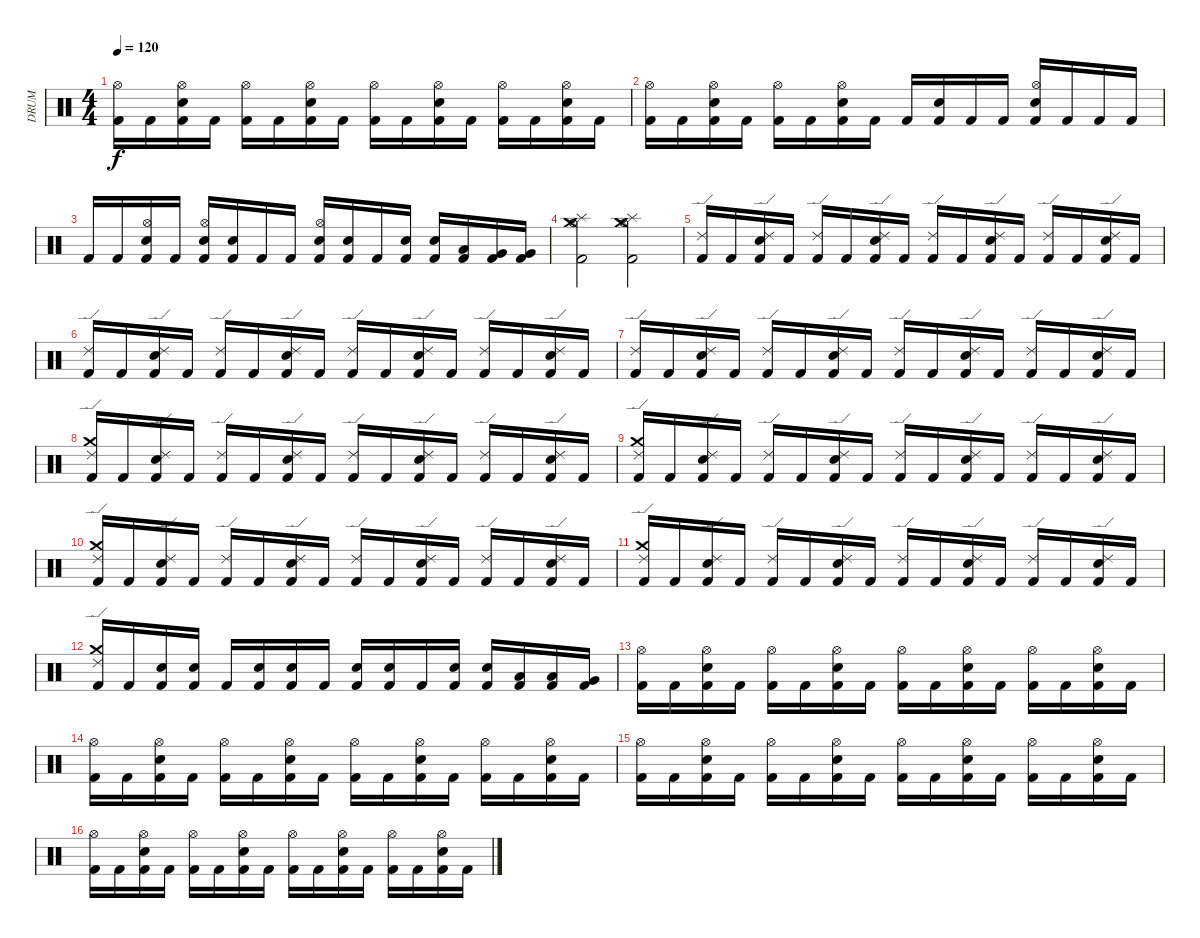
\track (" DRUM" " DRUM") {instrument percussion}
\staff {score}
\articulation defaults
\ts (4 4)
\tempo 120
\clef neutral
\ks c
("Kick (hit) 2" "Hi-Hat (open)").16{dy f} "Kick (hit) 2".16 ("Kick (hit) 2" "Electric Snare (hit)" "Hi-Hat (open)").16 "Kick (hit) 2".16 ("Kick (hit) 2" "Hi-Hat (open)").16 "Kick (hit) 2".16 ("Kick (hit) 2" "Electric Snare (hit)" "Hi-Hat (open)").16 "Kick (hit) 2".16 ("Kick (hit) 2" "Hi-Hat (open)").16 "Kick (hit) 2".16 ("Kick (hit) 2" "Electric Snare (hit)" "Hi-Hat (open)").16 "Kick (hit) 2".16 ("Kick (hit) 2" "Hi-Hat (open)").16 "Kick (hit) 2".16 ("Kick (hit) 2" "Electric Snare (hit)" "Hi-Hat (open)").16 "Kick (hit) 2".16 |
("Kick (hit) 2" "Hi-Hat (open)").16 "Kick (hit) 2".16 ("Kick (hit) 2" "Electric Snare (hit)" "Hi-Hat (open)").16 "Kick (hit) 2".16 ("Kick (hit) 2" "Hi-Hat (open)").16 "Kick (hit) 2".16 ("Kick (hit) 2" "Electric Snare (hit)" "Hi-Hat (open)").16 "Kick (hit) 2".16 "Kick (hit) 2".16 ("Electric Snare (hit)" "Kick (hit) 2").16 "Kick (hit) 2".16 "Kick (hit) 2".16 ("Hi-Hat (open)" "Electric Snare (hit)" "Kick (hit) 2").16 "Kick (hit) 2".16 "Kick (hit) 2".16 "Kick (hit) 2".16 |
"Kick (hit) 2".16 "Kick (hit) 2".16 ("Hi-Hat (open)" "Kick (hit) 2" "Electric Snare (hit)").16 "Kick (hit) 2".16 ("Hi-Hat (open)" "Kick (hit) 2" "Electric Snare (hit)").16 ("Kick (hit) 2" "Electric Snare (hit)").16 "Kick (hit) 2".16 "Kick (hit) 2".16 ("Hi-Hat (open)" "Kick (hit) 2" "Electric Snare (hit)").16 ("Kick (hit) 2" "Electric Snare (hit)").16 "Kick (hit) 2".16 ("Kick (hit) 2" "Electric Snare (hit)").16 ("Kick (hit) 2" "Electric Snare (hit)").16 ("Kick (hit) 2" "Low Tom (hit)").16 ("Kick (hit) 2" "Very Low Tom (hit)").16 ("Kick (hit) 2" "Very Low Tom (hit)").16 |
("Hi-Hat (open)" "Crash medium (hit)" "Splash (hit)" "Kick (hit) 2").2 ("Hi-Hat (open)" "Crash medium (hit)" "Splash (hit)" "Kick (hit) 2").2 |
("Kick (hit) 2" "Ride (edge) 2").16 "Kick (hit) 2".16 ("Kick (hit) 2" "Electric Snare (hit)" "Ride (edge) 2").16 "Kick (hit) 2".16 ("Kick (hit) 2" "Ride (edge) 2").16 "Kick (hit) 2".16 ("Kick (hit) 2" "Electric Snare (hit)" "Ride (edge) 2").16 "Kick (hit) 2".16 ("Kick (hit) 2" "Ride (edge) 2").16 "Kick (hit) 2".16 ("Kick (hit) 2" "Electric Snare (hit)" "Ride (edge) 2").16 "Kick (hit) 2".16 ("Kick (hit) 2" "Ride (edge) 2").16 "Kick (hit) 2".16 ("Kick (hit) 2" "Electric Snare (hit)" "Ride (edge) 2").16 "Kick (hit) 2".16 |
("Kick (hit) 2" "Ride (edge) 2").16 "Kick (hit) 2".16 ("Kick (hit) 2" "Electric Snare (hit)" "Ride (edge) 2").16 "Kick (hit) 2".16 ("Kick (hit) 2" "Ride (edge) 2").16 "Kick (hit) 2".16 ("Kick (hit) 2" "Electric Snare (hit)" "Ride (edge) 2").16 "Kick (hit) 2".16 ("Kick (hit) 2" "Ride (edge) 2").16 "Kick (hit) 2".16 ("Kick (hit) 2" "Electric Snare (hit)" "Ride (edge) 2").16 "Kick (hit) 2".16 ("Kick (hit) 2" "Ride (edge) 2").16 "Kick (hit) 2".16 ("Kick (hit) 2" "Electric Snare (hit)" "Ride (edge) 2").16 "Kick (hit) 2".16 |
("Kick (hit) 2" "Ride (edge) 2").16 "Kick (hit) 2".16 ("Kick (hit) 2" "Electric Snare (hit)" "Ride (edge) 2").16 "Kick (hit) 2".16 ("Kick (hit) 2" "Ride (edge) 2").16 "Kick (hit) 2".16 ("Kick (hit) 2" "Electric Snare (hit)" "Ride (edge) 2").16 "Kick (hit) 2".16 ("Kick (hit) 2" "Ride (edge) 2").16 "Kick (hit) 2".16 ("Kick (hit) 2" "Electric Snare (hit)" "Ride (edge) 2").16 "Kick (hit) 2".16 ("Kick (hit) 2" "Ride (edge) 2").16 "Kick (hit) 2".16 ("Kick (hit) 2" "Electric Snare (hit)" "Ride (edge) 2").16 "Kick (hit) 2".16 |
("Crash medium (hit)" "Kick (hit) 2" "Ride (edge) 2").16 "Kick (hit) 2".16 ("Kick (hit) 2" "Electric Snare (hit)" "Ride (edge) 2").16 "Kick (hit) 2".16 ("Kick (hit) 2" "Ride (edge) 2").16 "Kick (hit) 2".16 ("Kick (hit) 2" "Electric Snare (hit)" "Ride (edge) 2").16 "Kick (hit) 2".16 ("Kick (hit) 2" "Ride (edge) 2").16 "Kick (hit) 2".16 ("Kick (hit) 2" "Electric Snare (hit)" "Ride (edge) 2").16 "Kick (hit) 2".16 ("Kick (hit) 2" "Ride (edge) 2").16 "Kick (hit) 2".16 ("Kick (hit) 2" "Electric Snare (hit)" "Ride (edge) 2").16 "Kick (hit) 2".16 |
("Crash medium (hit)" "Kick (hit) 2" "Ride (edge) 2").16 "Kick (hit) 2".16 ("Kick (hit) 2" "Electric Snare (hit)" "Ride (edge) 2").16 "Kick (hit) 2".16 ("Kick (hit) 2" "Ride (edge) 2").16 "Kick (hit) 2".16 ("Kick (hit) 2" "Electric Snare (hit)" "Ride (edge) 2").16 "Kick (hit) 2".16 ("Kick (hit) 2" "Ride (edge) 2").16 "Kick (hit) 2".16 ("Kick (hit) 2" "Electric Snare (hit)" "Ride (edge) 2").16 "Kick (hit) 2".16 ("Kick (hit) 2" "Ride (edge) 2").16 "Kick (hit) 2".16 ("Kick (hit) 2" "Electric Snare (hit)" "Ride (edge) 2").16 "Kick (hit) 2".16 |
("Crash medium (hit)" "Kick (hit) 2" "Ride (edge) 2").16 "Kick (hit) 2".16 ("Kick (hit) 2" "Electric Snare (hit)" "Ride (edge) 2").16 "Kick (hit) 2".16 ("Kick (hit) 2" "Ride (edge) 2").16 "Kick (hit) 2".16 ("Kick (hit) 2" "Electric Snare (hit)" "Ride (edge) 2").16 "Kick (hit) 2".16 ("Kick (hit) 2" "Ride (edge) 2").16 "Kick (hit) 2".16 ("Kick (hit) 2" "Electric Snare (hit)" "Ride (edge) 2").16 "Kick (hit) 2".16 ("Kick (hit) 2" "Ride (edge) 2").16 "Kick (hit) 2".16 ("Kick (hit) 2" "Electric Snare (hit)" "Ride (edge) 2").16 "Kick (hit) 2".16 |
("Crash medium (hit)" "Kick (hit) 2" "Ride (edge) 2").16 "Kick (hit) 2".16 ("Kick (hit) 2" "Electric Snare (hit)" "Ride (edge) 2").16 "Kick (hit) 2".16 ("Kick (hit) 2" "Ride (edge) 2").16 "Kick (hit) 2".16 ("Kick (hit) 2" "Electric Snare (hit)" "Ride (edge) 2").16 "Kick (hit) 2".16 ("Kick (hit) 2" "Ride (edge) 2").16 "Kick (hit) 2".16 ("Kick (hit) 2" "Electric Snare (hit)" "Ride (edge) 2").16 "Kick (hit) 2".16 ("Kick (hit) 2" "Ride (edge) 2").16 "Kick (hit) 2".16 ("Kick (hit) 2" "Electric Snare (hit)" "Ride (edge) 2").16 "Kick (hit) 2".16 |
("Crash medium (hit)" "Kick (hit) 2" "Ride (edge) 2").16 "Kick (hit) 2".16 ("Electric Snare (hit)" "Kick (hit) 2").16 ("Electric Snare (hit)" "Kick (hit) 2").16 "Kick (hit) 2".16 ("Electric Snare (hit)" "Kick (hit) 2").16 ("Electric Snare (hit)" "Kick (hit) 2").16 "Kick (hit) 2".16 ("Electric Snare (hit)" "Kick (hit) 2").16 ("Electric Snare (hit)" "Kick (hit) 2").16 "Kick (hit) 2".16 ("Electric Snare (hit)" "Kick (hit) 2").16 ("Electric Snare (hit)" "Kick (hit) 2").16 ("Low Tom (hit)" "Kick (hit) 2").16 ("Low Tom (hit)" "Kick (hit) 2").16 ("Very Low Tom (hit)" "Kick (hit) 2").16 |
("Hi-Hat (open)" "Kick (hit) 2").16 "Kick (hit) 2".16 ("Hi-Hat (open)" "Electric Snare (hit)" "Kick (hit) 2").16 "Kick (hit) 2".16 ("Hi-Hat (open)" "Kick (hit) 2").16 "Kick (hit) 2".16 ("Hi-Hat (open)" "Electric Snare (hit)" "Kick (hit) 2").16 "Kick (hit) 2".16 ("Hi-Hat (open)" "Kick (hit) 2").16 "Kick (hit) 2".16 ("Hi-Hat (open)" "Electric Snare (hit)" "Kick (hit) 2").16 "Kick (hit) 2".16 ("Hi-Hat (open)" "Kick (hit) 2").16 "Kick (hit) 2".16 ("Hi-Hat (open)" "Electric Snare (hit)" "Kick (hit) 2").16 "Kick (hit) 2".16 |
("Hi-Hat (open)" "Kick (hit) 2").16 "Kick (hit) 2".16 ("Hi-Hat (open)" "Electric Snare (hit)" "Kick (hit) 2").16 "Kick (hit) 2".16 ("Hi-Hat (open)" "Kick (hit) 2").16 "Kick (hit) 2".16 ("Hi-Hat (open)" "Electric Snare (hit)" "Kick (hit) 2").16 "Kick (hit) 2".16 ("Hi-Hat (open)" "Kick (hit) 2").16 "Kick (hit) 2".16 ("Hi-Hat (open)" "Electric Snare (hit)" "Kick (hit) 2").16 "Kick (hit) 2".16 ("Hi-Hat (open)" "Kick (hit) 2").16 "Kick (hit) 2".16 ("Hi-Hat (open)" "Electric Snare (hit)" "Kick (hit) 2").16 "Kick (hit) 2".16 |
("Hi-Hat (open)" "Kick (hit) 2").16 "Kick (hit) 2".16 ("Hi-Hat (open)" "Electric Snare (hit)" "Kick (hit) 2").16 "Kick (hit) 2".16 ("Hi-Hat (open)" "Kick (hit) 2").16 "Kick (hit) 2".16 ("Hi-Hat (open)" "Electric Snare (hit)" "Kick (hit) 2").16 "Kick (hit) 2".16 ("Hi-Hat (open)" "Kick (hit) 2").16 "Kick (hit) 2".16 ("Hi-Hat (open)" "Electric Snare (hit)" "Kick (hit) 2").16 "Kick (hit) 2".16 ("Hi-Hat (open)" "Kick (hit) 2").16 "Kick (hit) 2".16 ("Hi-Hat (open)" "Electric Snare (hit)" "Kick (hit) 2").16 "Kick (hit) 2".16 |
("Hi-Hat (open)" "Kick (hit) 2").16 "Kick (hit) 2".16 ("Hi-Hat (open)" "Electric Snare (hit)" "Kick (hit) 2").16 "Kick (hit) 2".16 ("Hi-Hat (open)" "Kick (hit) 2").16 "Kick (hit) 2".16 ("Hi-Hat (open)" "Electric Snare (hit)" "Kick (hit) 2").16 "Kick (hit) 2".16 ("Hi-Hat (open)" "Kick (hit) 2").16 "Kick (hit) 2".16 ("Hi-Hat (open)" "Electric Snare (hit)" "Kick (hit) 2").16 "Kick (hit) 2".16 ("Hi-Hat (open)" "Kick (hit) 2").16 "Kick (hit) 2".16 ("Hi-Hat (open)" "Electric Snare (hit)" "Kick (hit) 2").16 "Kick (hit) 2".16
